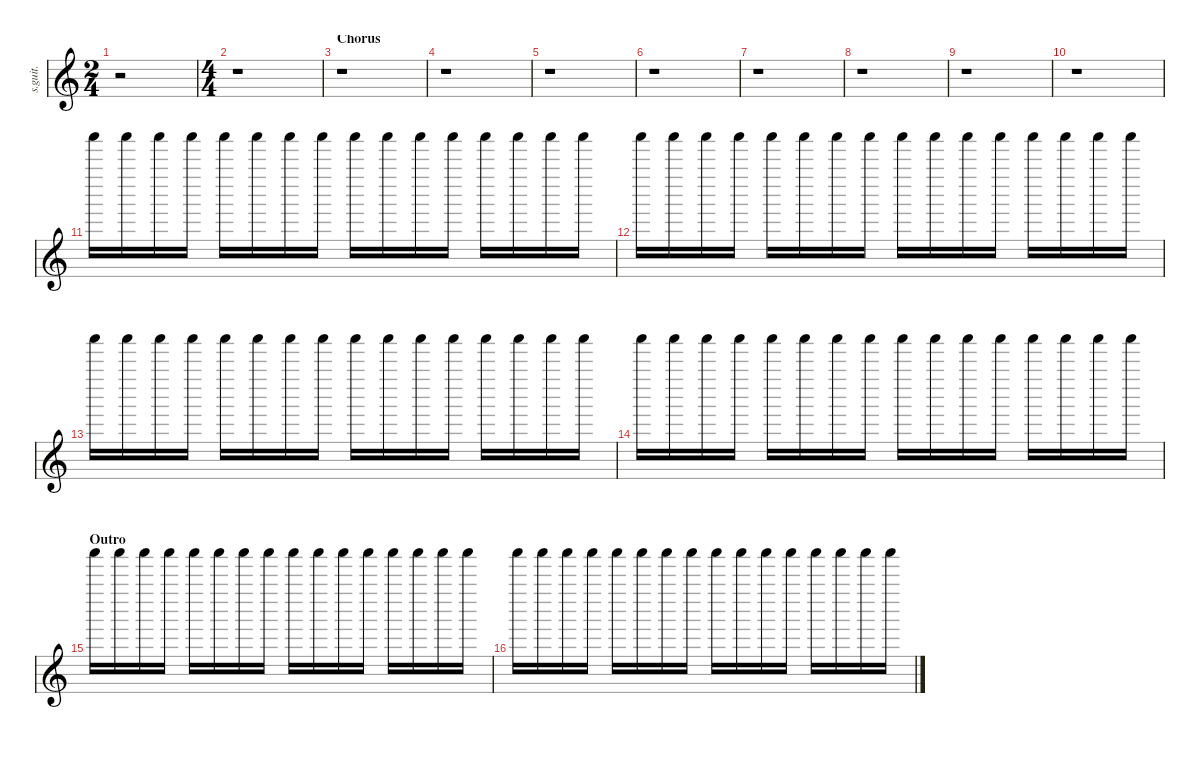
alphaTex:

\defaultSystemsLayout 4
\hideDynamics
\bracketExtendMode nobrackets
\track ("Shaker" "s.guit.") {instrument percussion}
\staff {score}
\articulation defaults
\ts (2 4)
\beaming (8 2 2 2 2)
\tempo (60 hide)
\clef g2
\ks c
r.2{dy mp} |
\ts (4 4)
\beaming (8 2 2 2 2)
\tempo (69 hide)
r.1 |
\section ("" "Chorus")
r.1 |
r.1 |
r.1 |
r.1 |
r.1 |
r.1 |
r.1 |
r.1 |
"Shaker (hit)".16{lyrics (0 "") lyrics (1 "") lyrics (2 "") lyrics (3 "") lyrics (4 "")} "Shaker (hit)".16{lyrics (0 "") lyrics (1 "") lyrics (2 "") lyrics (3 "") lyrics (4 "")} "Shaker (hit)".16{lyrics (0 "") lyrics (1 "") lyrics (2 "") lyrics (3 "") lyrics (4 "")} "Shaker (hit)".16{lyrics (0 "") lyrics (1 "") lyrics (2 "") lyrics (3 "") lyrics (4 "")} "Shaker (hit)".16{lyrics (0 "") lyrics (1 "") lyrics (2 "") lyrics (3 "") lyrics (4 "")} "Shaker (hit)".16{lyrics (0 "") lyrics (1 "") lyrics (2 "") lyrics (3 "") lyrics (4 "")} "Shaker (hit)".16{lyrics (0 "") lyrics (1 "") lyrics (2 "") lyrics (3 "") lyrics (4 "")} "Shaker (hit)".16{lyrics (0 "") lyrics (1 "") lyrics (2 "") lyrics (3 "") lyrics (4 "")} "Shaker (hit)".16{lyrics (0 "") lyrics (1 "") lyrics (2 "") lyrics (3 "") lyrics (4 "")} "Shaker (hit)".16{lyrics (0 "") lyrics (1 "") lyrics (2 "") lyrics (3 "") lyrics (4 "")} "Shaker (hit)".16{lyrics (0 "") lyrics (1 "") lyrics (2 "") lyrics (3 "") lyrics (4 "")} "Shaker (hit)".16{lyrics (0 "") lyrics (1 "") lyrics (2 "") lyrics (3 "") lyrics (4 "")} "Shaker (hit)".16{lyrics (0 "") lyrics (1 "") lyrics (2 "") lyrics (3 "") lyrics (4 "")} "Shaker (hit)".16{lyrics (0 "") lyrics (1 "") lyrics (2 "") lyrics (3 "") lyrics (4 "")} "Shaker (hit)".16{lyrics (0 "") lyrics (1 "") lyrics (2 "") lyrics (3 "") lyrics (4 "")} "Shaker (hit)".16{lyrics (0 "") lyrics (1 "") lyrics (2 "") lyrics (3 "") lyrics (4 "")} |
"Shaker (hit)".16{lyrics (0 "") lyrics (1 "") lyrics (2 "") lyrics (3 "") lyrics (4 "")} "Shaker (hit)".16{lyrics (0 "") lyrics (1 "") lyrics (2 "") lyrics (3 "") lyrics (4 "")} "Shaker (hit)".16{lyrics (0 "") lyrics (1 "") lyrics (2 "") lyrics (3 "") lyrics (4 "")} "Shaker (hit)".16{lyrics (0 "") lyrics (1 "") lyrics (2 "") lyrics (3 "") lyrics (4 "")} "Shaker (hit)".16{lyrics (0 "") lyrics (1 "") lyrics (2 "") lyrics (3 "") lyrics (4 "")} "Shaker (hit)".16{lyrics (0 "") lyrics (1 "") lyrics (2 "") lyrics (3 "") lyrics (4 "")} "Shaker (hit)".16{lyrics (0 "") lyrics (1 "") lyrics (2 "") lyrics (3 "") lyrics (4 "")} "Shaker (hit)".16{lyrics (0 "") lyrics (1 "") lyrics (2 "") lyrics (3 "") lyrics (4 "")} "Shaker (hit)".16{lyrics (0 "") lyrics (1 "") lyrics (2 "") lyrics (3 "") lyrics (4 "")} "Shaker (hit)".16{lyrics (0 "") lyrics (1 "") lyrics (2 "") lyrics (3 "") lyrics (4 "")} "Shaker (hit)".16{lyrics (0 "") lyrics (1 "") lyrics (2 "") lyrics (3 "") lyrics (4 "")} "Shaker (hit)".16{lyrics (0 "") lyrics (1 "") lyrics (2 "") lyrics (3 "") lyrics (4 "")} "Shaker (hit)".16{lyrics (0 "") lyrics (1 "") lyrics (2 "") lyrics (3 "") lyrics (4 "")} "Shaker (hit)".16{lyrics (0 "") lyrics (1 "") lyrics (2 "") lyrics (3 "") lyrics (4 "")} "Shaker (hit)".16{lyrics (0 "") lyrics (1 "") lyrics (2 "") lyrics (3 "") lyrics (4 "")} "Shaker (hit)".16{lyrics (0 "") lyrics (1 "") lyrics (2 "") lyrics (3 "") lyrics (4 "")} |
"Shaker (hit)".16{lyrics (0 "") lyrics (1 "") lyrics (2 "") lyrics (3 "") lyrics (4 "")} "Shaker (hit)".16{lyrics (0 "") lyrics (1 "") lyrics (2 "") lyrics (3 "") lyrics (4 "")} "Shaker (hit)".16{lyrics (0 "") lyrics (1 "") lyrics (2 "") lyrics (3 "") lyrics (4 "")} "Shaker (hit)".16{lyrics (0 "") lyrics (1 "") lyrics (2 "") lyrics (3 "") lyrics (4 "")} "Shaker (hit)".16{lyrics (0 "") lyrics (1 "") lyrics (2 "") lyrics (3 "") lyrics (4 "")} "Shaker (hit)".16{lyrics (0 "") lyrics (1 "") lyrics (2 "") lyrics (3 "") lyrics (4 "")} "Shaker (hit)".16{lyrics (0 "") lyrics (1 "") lyrics (2 "") lyrics (3 "") lyrics (4 "")} "Shaker (hit)".16{lyrics (0 "") lyrics (1 "") lyrics (2 "") lyrics (3 "") lyrics (4 "")} "Shaker (hit)".16{lyrics (0 "") lyrics (1 "") lyrics (2 "") lyrics (3 "") lyrics (4 "")} "Shaker (hit)".16{lyrics (0 "") lyrics (1 "") lyrics (2 "") lyrics (3 "") lyrics (4 "")} "Shaker (hit)".16{lyrics (0 "") lyrics (1 "") lyrics (2 "") lyrics (3 "") lyrics (4 "")} "Shaker (hit)".16{lyrics (0 "") lyrics (1 "") lyrics (2 "") lyrics (3 "") lyrics (4 "")} "Shaker (hit)".16{lyrics (0 "") lyrics (1 "") lyrics (2 "") lyrics (3 "") lyrics (4 "")} "Shaker (hit)".16{lyrics (0 "") lyrics (1 "") lyrics (2 "") lyrics (3 "") lyrics (4 "")} "Shaker (hit)".16{lyrics (0 "") lyrics (1 "") lyrics (2 "") lyrics (3 "") lyrics (4 "")} "Shaker (hit)".16{lyrics (0 "") lyrics (1 "") lyrics (2 "") lyrics (3 "") lyrics (4 "")} |
"Shaker (hit)".16{lyrics (0 "") lyrics (1 "") lyrics (2 "") lyrics (3 "") lyrics (4 "")} "Shaker (hit)".16{lyrics (0 "") lyrics (1 "") lyrics (2 "") lyrics (3 "") lyrics (4 "")} "Shaker (hit)".16{lyrics (0 "") lyrics (1 "") lyrics (2 "") lyrics (3 "") lyrics (4 "")} "Shaker (hit)".16{lyrics (0 "") lyrics (1 "") lyrics (2 "") lyrics (3 "") lyrics (4 "")} "Shaker (hit)".16{lyrics (0 "") lyrics (1 "") lyrics (2 "") lyrics (3 "") lyrics (4 "")} "Shaker (hit)".16{lyrics (0 "") lyrics (1 "") lyrics (2 "") lyrics (3 "") lyrics (4 "")} "Shaker (hit)".16{lyrics (0 "") lyrics (1 "") lyrics (2 "") lyrics (3 "") lyrics (4 "")} "Shaker (hit)".16{lyrics (0 "") lyrics (1 "") lyrics (2 "") lyrics (3 "") lyrics (4 "")} "Shaker (hit)".16{lyrics (0 "") lyrics (1 "") lyrics (2 "") lyrics (3 "") lyrics (4 "")} "Shaker (hit)".16{lyrics (0 "") lyrics (1 "") lyrics (2 "") lyrics (3 "") lyrics (4 "")} "Shaker (hit)".16{lyrics (0 "") lyrics (1 "") lyrics (2 "") lyrics (3 "") lyrics (4 "")} "Shaker (hit)".16{lyrics (0 "") lyrics (1 "") lyrics (2 "") lyrics (3 "") lyrics (4 "")} "Shaker (hit)".16{lyrics (0 "") lyrics (1 "") lyrics (2 "") lyrics (3 "") lyrics (4 "")} "Shaker (hit)".16{lyrics (0 "") lyrics (1 "") lyrics (2 "") lyrics (3 "") lyrics (4 "")} "Shaker (hit)".16{lyrics (0 "") lyrics (1 "") lyrics (2 "") lyrics (3 "") lyrics (4 "")} "Shaker (hit)".16{lyrics (0 "") lyrics (1 "") lyrics (2 "") lyrics (3 "") lyrics (4 "")} |
\section ("" "Outro")
"Shaker (hit)".16{lyrics (0 "") lyrics (1 "") lyrics (2 "") lyrics (3 "") lyrics (4 "")} "Shaker (hit)".16{lyrics (0 "") lyrics (1 "") lyrics (2 "") lyrics (3 "") lyrics (4 "")} "Shaker (hit)".16{lyrics (0 "") lyrics (1 "") lyrics (2 "") lyrics (3 "") lyrics (4 "")} "Shaker (hit)".16{lyrics (0 "") lyrics (1 "") lyrics (2 "") lyrics (3 "") lyrics (4 "")} "Shaker (hit)".16{lyrics (0 "") lyrics (1 "") lyrics (2 "") lyrics (3 "") lyrics (4 "")} "Shaker (hit)".16{lyrics (0 "") lyrics (1 "") lyrics (2 "") lyrics (3 "") lyrics (4 "")} "Shaker (hit)".16{lyrics (0 "") lyrics (1 "") lyrics (2 "") lyrics (3 "") lyrics (4 "")} "Shaker (hit)".16{lyrics (0 "") lyrics (1 "") lyrics (2 "") lyrics (3 "") lyrics (4 "")} "Shaker (hit)".16{lyrics (0 "") lyrics (1 "") lyrics (2 "") lyrics (3 "") lyrics (4 "")} "Shaker (hit)".16{lyrics (0 "") lyrics (1 "") lyrics (2 "") lyrics (3 "") lyrics (4 "")} "Shaker (hit)".16{lyrics (0 "") lyrics (1 "") lyrics (2 "") lyrics (3 "") lyrics (4 "")} "Shaker (hit)".16{lyrics (0 "") lyrics (1 "") lyrics (2 "") lyrics (3 "") lyrics (4 "")} "Shaker (hit)".16{lyrics (0 "") lyrics (1 "") lyrics (2 "") lyrics (3 "") lyrics (4 "")} "Shaker (hit)".16{lyrics (0 "") lyrics (1 "") lyrics (2 "") lyrics (3 "") lyrics (4 "")} "Shaker (hit)".16{lyrics (0 "") lyrics (1 "") lyrics (2 "") lyrics (3 "") lyrics (4 "")} "Shaker (hit)".16{lyrics (0 "") lyrics (1 "") lyrics (2 "") lyrics (3 "") lyrics (4 "")} |
"Shaker (hit)".16{lyrics (0 "") lyrics (1 "") lyrics (2 "") lyrics (3 "") lyrics (4 "")} "Shaker (hit)".16{lyrics (0 "") lyrics (1 "") lyrics (2 "") lyrics (3 "") lyrics (4 "")} "Shaker (hit)".16{lyrics (0 "") lyrics (1 "") lyrics (2 "") lyrics (3 "") lyrics (4 "")} "Shaker (hit)".16{lyrics (0 "") lyrics (1 "") lyrics (2 "") lyrics (3 "") lyrics (4 "")} "Shaker (hit)".16{lyrics (0 "") lyrics (1 "") lyrics (2 "") lyrics (3 "") lyrics (4 "")} "Shaker (hit)".16{lyrics (0 "") lyrics (1 "") lyrics (2 "") lyrics (3 "") lyrics (4 "")} "Shaker (hit)".16{lyrics (0 "") lyrics (1 "") lyrics (2 "") lyrics (3 "") lyrics (4 "")} "Shaker (hit)".16{lyrics (0 "") lyrics (1 "") lyrics (2 "") lyrics (3 "") lyrics (4 "")} "Shaker (hit)".16{lyrics (0 "") lyrics (1 "") lyrics (2 "") lyrics (3 "") lyrics (4 "")} "Shaker (hit)".16{lyrics (0 "") lyrics (1 "") lyrics (2 "") lyrics (3 "") lyrics (4 "")} "Shaker (hit)".16{lyrics (0 "") lyrics (1 "") lyrics (2 "") lyrics (3 "") lyrics (4 "")} "Shaker (hit)".16{lyrics (0 "") lyrics (1 "") lyrics (2 "") lyrics (3 "") lyrics (4 "")} "Shaker (hit)".16{lyrics (0 "") lyrics (1 "") lyrics (2 "") lyrics (3 "") lyrics (4 "")} "Shaker (hit)".16{lyrics (0 "") lyrics (1 "") lyrics (2 "") lyrics (3 "") lyrics (4 "")} "Shaker (hit)".16{lyrics (0 "") lyrics (1 "") lyrics (2 "") lyrics (3 "") lyrics (4 "")} "Shaker (hit)".16{lyrics (0 "") lyrics (1 "") lyrics (2 "") lyrics (3 "") lyrics (4 "")}
